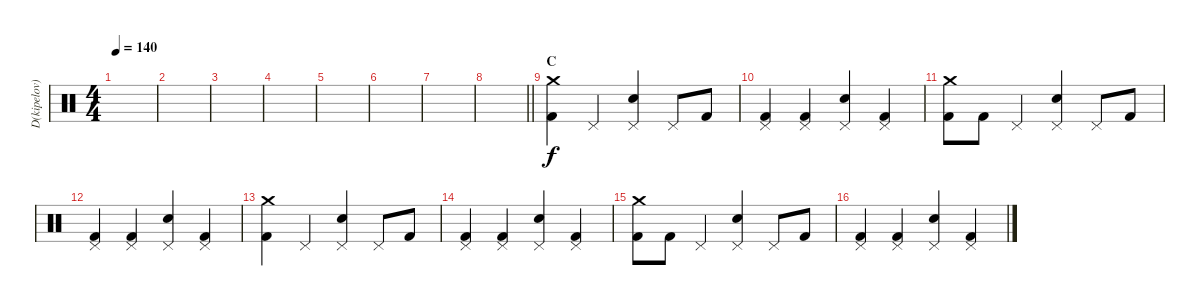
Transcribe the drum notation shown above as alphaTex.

\track ("D(kipelov)" "D(kipelov)") {instrument percussion}
\staff {score}
\articulation defaults
\ts (4 4)
\tempo 140
\clef neutral
\ks c
|
|
|
|
|
|
|
\barLineRight lightlight
|
\section ("" "C")
("Crash medium (hit)" "Kick (hit) 2").4 "Pedal Hi-Hat (hit)".4 ("Electric Snare (hit)" "Pedal Hi-Hat (hit)").4 "Pedal Hi-Hat (hit)".8 "Kick (hit) 2".8 |
("Kick (hit) 2" "Pedal Hi-Hat (hit)").4 ("Kick (hit) 2" "Pedal Hi-Hat (hit)").4 ("Electric Snare (hit)" "Pedal Hi-Hat (hit)").4 ("Kick (hit) 2" "Pedal Hi-Hat (hit)").4 |
("Crash medium (hit)" "Kick (hit) 2").8 "Kick (hit) 2".8 "Pedal Hi-Hat (hit)".4 ("Electric Snare (hit)" "Pedal Hi-Hat (hit)").4 "Pedal Hi-Hat (hit)".8 "Kick (hit) 2".8 |
("Kick (hit) 2" "Pedal Hi-Hat (hit)").4 ("Kick (hit) 2" "Pedal Hi-Hat (hit)").4 ("Electric Snare (hit)" "Pedal Hi-Hat (hit)").4 ("Kick (hit) 2" "Pedal Hi-Hat (hit)").4 |
("Crash medium (hit)" "Kick (hit) 2").4 "Pedal Hi-Hat (hit)".4 ("Electric Snare (hit)" "Pedal Hi-Hat (hit)").4 "Pedal Hi-Hat (hit)".8 "Kick (hit) 2".8 |
("Kick (hit) 2" "Pedal Hi-Hat (hit)").4 ("Kick (hit) 2" "Pedal Hi-Hat (hit)").4 ("Electric Snare (hit)" "Pedal Hi-Hat (hit)").4 ("Kick (hit) 2" "Pedal Hi-Hat (hit)").4 |
("Crash medium (hit)" "Kick (hit) 2").8 "Kick (hit) 2".8 "Pedal Hi-Hat (hit)".4 ("Electric Snare (hit)" "Pedal Hi-Hat (hit)").4 "Pedal Hi-Hat (hit)".8 "Kick (hit) 2".8 |
("Kick (hit) 2" "Pedal Hi-Hat (hit)").4 ("Kick (hit) 2" "Pedal Hi-Hat (hit)").4 ("Electric Snare (hit)" "Pedal Hi-Hat (hit)").4 ("Kick (hit) 2" "Pedal Hi-Hat (hit)").4
